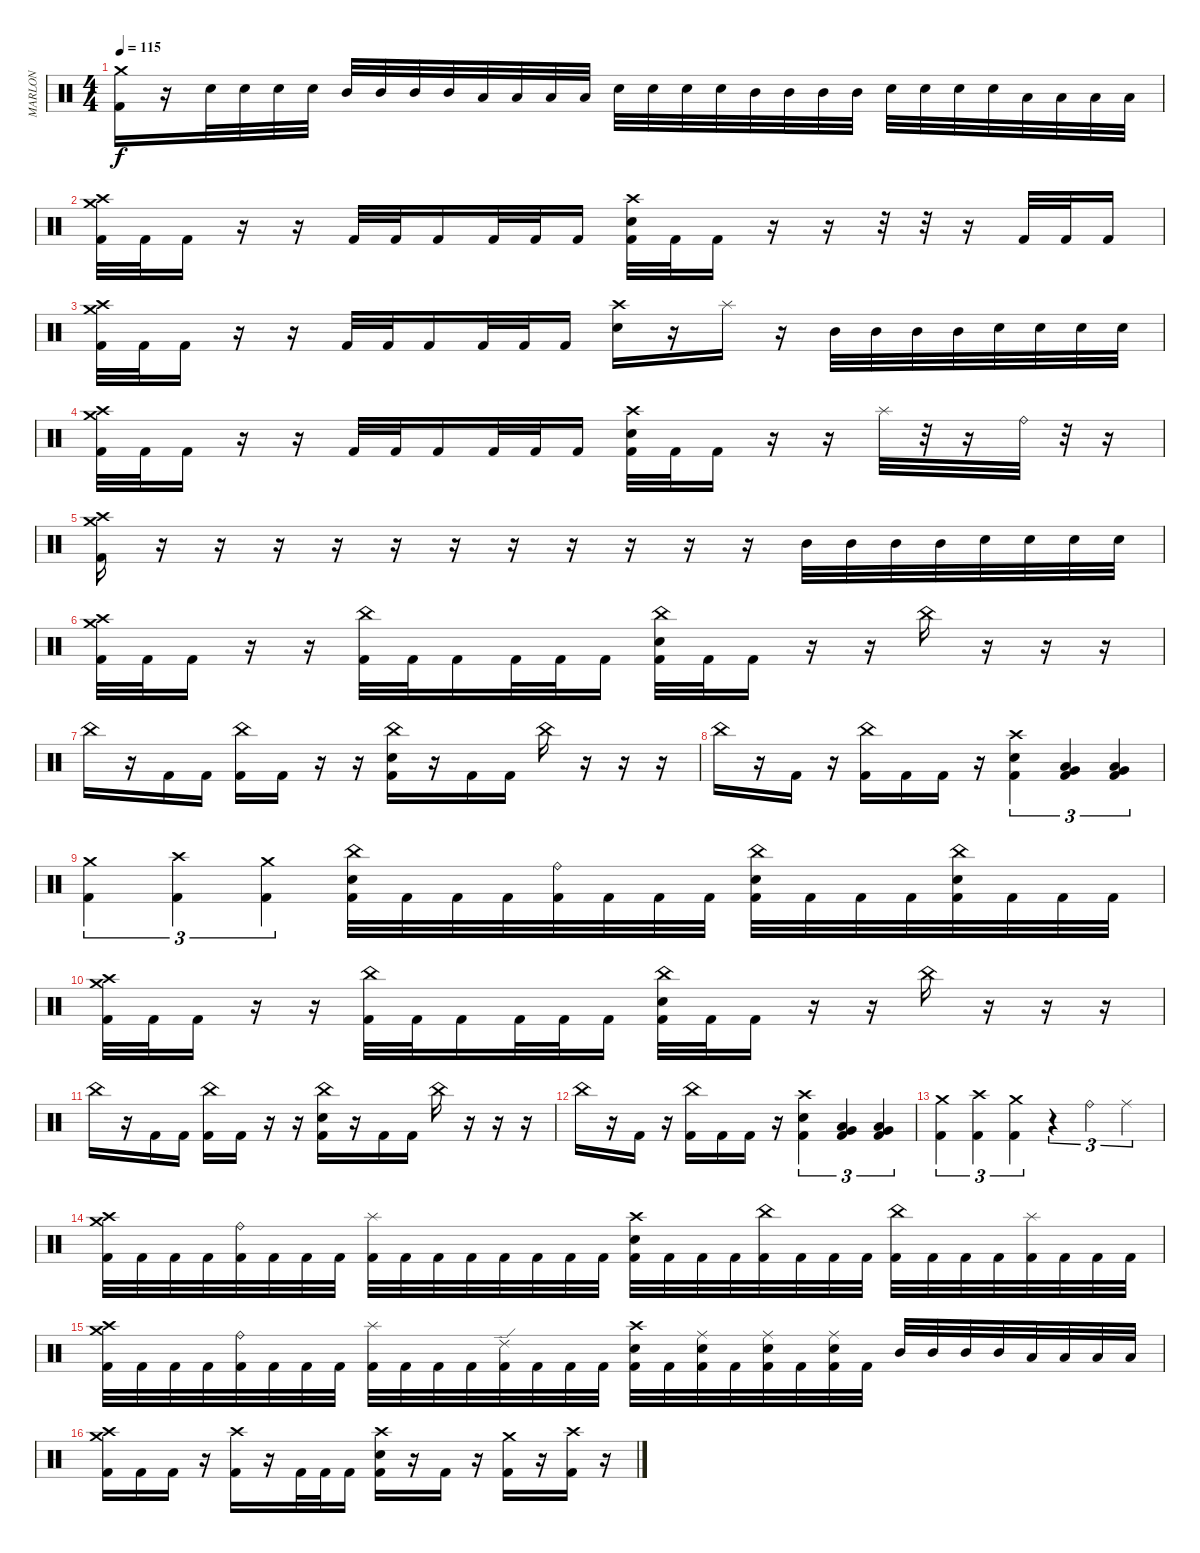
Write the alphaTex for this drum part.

\track ("MARLON" "MARLON") {instrument percussion}
\staff {score}
\articulation defaults
\ts (4 4)
\tempo 115
\clef neutral
\ks c
("Crash medium (hit)" "Kick (hit) 2").16{dy f} r.16 "Electric Snare (hit)".32 "Electric Snare (hit)".32 "Electric Snare (hit)".32 "Electric Snare (hit)".32 "Mid Tom (hit)".32 "Mid Tom (hit)".32 "Mid Tom (hit)".32 "Mid Tom (hit)".32 "Low Tom (hit)".32 "Low Tom (hit)".32 "Low Tom (hit)".32 "Low Tom (hit)".32 "Electric Snare (hit)".32 "Electric Snare (hit)".32 "Electric Snare (hit)".32 "Electric Snare (hit)".32 "Mid Tom (hit)".32 "Mid Tom (hit)".32 "Mid Tom (hit)".32 "Mid Tom (hit)".32 "Electric Snare (hit)".32 "Electric Snare (hit)".32 "Electric Snare (hit)".32 "Electric Snare (hit)".32 "Low Tom (hit)".32 "Low Tom (hit)".32 "Low Tom (hit)".32 "Low Tom (hit)".32 |
("Crash high (hit)" "Crash medium (hit)" "Kick (hit) 2").32 "Kick (hit) 2".32 "Kick (hit) 2".16 r.16 r.16 "Kick (hit) 2".32 "Kick (hit) 2".32 "Kick (hit) 2".16 "Kick (hit) 2".32 "Kick (hit) 2".32 "Kick (hit) 2".16 ("Crash high (hit)" "Electric Snare (hit)" "Kick (hit) 2").32 "Kick (hit) 2".32 "Kick (hit) 2".16 r.16 r.16 r.32 r.32 r.16 "Kick (hit) 2".32 "Kick (hit) 2".32 "Kick (hit) 2".16 |
("Crash high (hit)" "Crash medium (hit)" "Kick (hit) 2").32 "Kick (hit) 2".32 "Kick (hit) 2".16 r.16 r.16 "Kick (hit) 2".32 "Kick (hit) 2".32 "Kick (hit) 2".16 "Kick (hit) 2".32 "Kick (hit) 2".32 "Kick (hit) 2".16 ("Crash high (hit)" "Electric Snare (hit)").16 r.16 "Splash (hit)".16 r.16 "Mid Tom (hit)".32 "Mid Tom (hit)".32 "Mid Tom (hit)".32 "Mid Tom (hit)".32 "Electric Snare (hit)".32 "Electric Snare (hit)".32 "Electric Snare (hit)".32 "Electric Snare (hit)".32 |
("Crash high (hit)" "Crash medium (hit)" "Kick (hit) 2").32 "Kick (hit) 2".32 "Kick (hit) 2".16 r.16 r.16 "Kick (hit) 2".32 "Kick (hit) 2".32 "Kick (hit) 2".16 "Kick (hit) 2".32 "Kick (hit) 2".32 "Kick (hit) 2".16 ("Crash high (hit)" "Electric Snare (hit)" "Kick (hit) 2").32 "Kick (hit) 2".32 "Kick (hit) 2".16 r.16 r.16 "Splash (hit)".32 r.32 r.16 "Ride (bell)".32 r.32 r.16 |
("Crash high (hit)" "Crash medium (hit)" "Kick (hit) 2").16 r.16 r.16 r.16 r.16 r.16 r.16 r.16 r.16 r.16 r.16 r.16 "Mid Tom (hit)".32 "Mid Tom (hit)".32 "Mid Tom (hit)".32 "Mid Tom (hit)".32 "Electric Snare (hit)".32 "Electric Snare (hit)".32 "Electric Snare (hit)".32 "Electric Snare (hit)".32 |
("Crash high (hit)" "Crash medium (hit)" "Kick (hit) 2").32 "Kick (hit) 2".32 "Kick (hit) 2".16 r.16 r.16 ("China (hit)" "Kick (hit) 2").32 "Kick (hit) 2".32 "Kick (hit) 2".16 "Kick (hit) 2".32 "Kick (hit) 2".32 "Kick (hit) 2".16 ("China (hit)" "Electric Snare (hit)" "Kick (hit) 2").32 "Kick (hit) 2".32 "Kick (hit) 2".16 r.16 r.16 "China (hit)".16 r.16 r.16 r.16 |
"China (hit)".16 r.16 "Kick (hit) 2".16 "Kick (hit) 2".16 ("China (hit)" "Kick (hit) 2").16 "Kick (hit) 2".16 r.16 r.16 ("China (hit)" "Electric Snare (hit)" "Kick (hit) 2").16 r.16 "Kick (hit) 2".16 "Kick (hit) 2".16 "China (hit)".16 r.16 r.16 r.16 |
"China (hit)".16 r.16 "Kick (hit) 2".16 r.16 ("China (hit)" "Kick (hit) 2").16 "Kick (hit) 2".16 "Kick (hit) 2".16 r.16 ("Crash high (hit)" "Electric Snare (hit)" "Kick (hit) 2").4{tu (3 2)} ("Very Low Tom (hit)" "Low Tom (hit)" "Kick (hit) 2").4{tu (3 2)} ("Very Low Tom (hit)" "Low Tom (hit)" "Kick (hit) 2").4{tu (3 2)} |
("Crash medium (hit)" "Kick (hit) 2").4{tu (3 2)} ("Crash high (hit)" "Kick (hit) 2").4{tu (3 2)} ("Crash medium (hit)" "Kick (hit) 2").4{tu (3 2)} ("China (hit)" "Electric Snare (hit)" "Kick (hit) 2").32 "Kick (hit) 2".32 "Kick (hit) 2".32 "Kick (hit) 2".32 ("Ride (bell)" "Kick (hit) 2").32 "Kick (hit) 2".32 "Kick (hit) 2".32 "Kick (hit) 2".32 ("China (hit)" "Electric Snare (hit)" "Kick (hit) 2").32 "Kick (hit) 2".32 "Kick (hit) 2".32 "Kick (hit) 2".32 ("China (hit)" "Electric Snare (hit)" "Kick (hit) 2").32 "Kick (hit) 2".32 "Kick (hit) 2".32 "Kick (hit) 2".32 |
("Crash high (hit)" "Crash medium (hit)" "Kick (hit) 2").32 "Kick (hit) 2".32 "Kick (hit) 2".16 r.16 r.16 ("China (hit)" "Kick (hit) 2").32 "Kick (hit) 2".32 "Kick (hit) 2".16 "Kick (hit) 2".32 "Kick (hit) 2".32 "Kick (hit) 2".16 ("China (hit)" "Electric Snare (hit)" "Kick (hit) 2").32 "Kick (hit) 2".32 "Kick (hit) 2".16 r.16 r.16 "China (hit)".16 r.16 r.16 r.16 |
"China (hit)".16 r.16 "Kick (hit) 2".16 "Kick (hit) 2".16 ("China (hit)" "Kick (hit) 2").16 "Kick (hit) 2".16 r.16 r.16 ("China (hit)" "Electric Snare (hit)" "Kick (hit) 2").16 r.16 "Kick (hit) 2".16 "Kick (hit) 2".16 "China (hit)".16 r.16 r.16 r.16 |
"China (hit)".16 r.16 "Kick (hit) 2".16 r.16 ("China (hit)" "Kick (hit) 2").16 "Kick (hit) 2".16 "Kick (hit) 2".16 r.16 ("Crash high (hit)" "Electric Snare (hit)" "Kick (hit) 2").4{tu (3 2)} ("Very Low Tom (hit)" "Low Tom (hit)" "Kick (hit) 2").4{tu (3 2)} ("Very Low Tom (hit)" "Low Tom (hit)" "Kick (hit) 2").4{tu (3 2)} |
("Crash medium (hit)" "Kick (hit) 2").4{tu (3 2)} ("Crash high (hit)" "Kick (hit) 2").4{tu (3 2)} ("Crash medium (hit)" "Kick (hit) 2").4{tu (3 2)} r.4{tu (3 2)} "Ride (bell)".4{tu (3 2)} "Ride (middle)".4{tu (3 2)} |
("Crash high (hit)" "Crash medium (hit)" "Kick (hit) 2").32 "Kick (hit) 2".32 "Kick (hit) 2".32 "Kick (hit) 2".32 ("Ride (bell)" "Kick (hit) 2").32 "Kick (hit) 2".32 "Kick (hit) 2".32 "Kick (hit) 2".32 ("Splash (hit)" "Kick (hit) 2").32 "Kick (hit) 2".32 "Kick (hit) 2".32 "Kick (hit) 2".32 "Kick (hit) 2".32 "Kick (hit) 2".32 "Kick (hit) 2".32 "Kick (hit) 2".32 ("Crash high (hit)" "Electric Snare (hit)" "Kick (hit) 2").32 "Kick (hit) 2".32 "Kick (hit) 2".32 "Kick (hit) 2".32 ("China (hit)" "Kick (hit) 2").32 "Kick (hit) 2".32 "Kick (hit) 2".32 "Kick (hit) 2".32 ("China (hit)" "Kick (hit) 2").32 "Kick (hit) 2".32 "Kick (hit) 2".32 "Kick (hit) 2".32 ("Splash (hit)" "Kick (hit) 2").32 "Kick (hit) 2".32 "Kick (hit) 2".32 "Kick (hit) 2".32 |
("Crash high (hit)" "Crash medium (hit)" "Kick (hit) 2").32 "Kick (hit) 2".32 "Kick (hit) 2".32 "Kick (hit) 2".32 ("Ride (bell)" "Kick (hit) 2").32 "Kick (hit) 2".32 "Kick (hit) 2".32 "Kick (hit) 2".32 ("Splash (hit)" "Kick (hit) 2").32 "Kick (hit) 2".32 "Kick (hit) 2".32 "Kick (hit) 2".32 ("Ride (edge) 2" "Kick (hit) 2").32 "Kick (hit) 2".32 "Kick (hit) 2".32 "Kick (hit) 2".32 ("Crash high (hit)" "Electric Snare (hit)" "Kick (hit) 2").32 "Kick (hit) 2".32 ("Ride (middle)" "Electric Snare (hit)" "Kick (hit) 2").32 "Kick (hit) 2".32 ("Ride (middle)" "Electric Snare (hit)" "Kick (hit) 2").32 "Kick (hit) 2".32 ("Ride (middle)" "Electric Snare (hit)" "Kick (hit) 2").32 "Kick (hit) 2".32 "Mid Tom (hit)".32 "Mid Tom (hit)".32 "Mid Tom (hit)".32 "Mid Tom (hit)".32 "Low Tom (hit)".32 "Low Tom (hit)".32 "Low Tom (hit)".32 "Low Tom (hit)".32 |
("Crash medium (hit)" "Crash high (hit)" "Kick (hit) 2").16 "Kick (hit) 2".16 "Kick (hit) 2".16 r.16 ("Crash high (hit)" "Kick (hit) 2").16 r.16 "Kick (hit) 2".32 "Kick (hit) 2".32 "Kick (hit) 2".16 ("Crash high (hit)" "Electric Snare (hit)" "Kick (hit) 2").16 r.16 "Kick (hit) 2".16 r.16 ("Crash medium (hit)" "Kick (hit) 2").16 r.16 ("Crash high (hit)" "Kick (hit) 2").16 r.16
